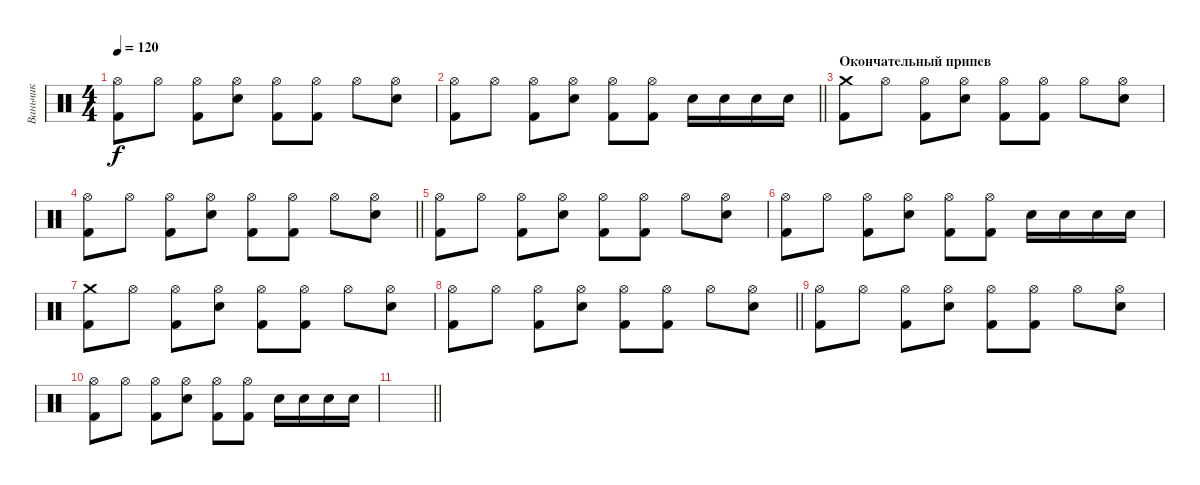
\track ("Ваньчик" "Ваньчик") {instrument percussion}
\staff {score}
\articulation defaults
\ts (4 4)
\tempo 120
\clef neutral
\ks c
("Hi-Hat (open)" "Kick (hit) 2").8{dy f} "Hi-Hat (open)".8 ("Hi-Hat (open)" "Kick (hit) 2").8 ("Hi-Hat (open)" "Snare (hit) 2").8 ("Hi-Hat (open)" "Kick (hit) 2").8 ("Hi-Hat (open)" "Kick (hit) 2").8 "Hi-Hat (open)".8 ("Hi-Hat (open)" "Snare (hit) 2").8 |
\barLineRight lightlight
("Hi-Hat (open)" "Kick (hit) 2").8 "Hi-Hat (open)".8 ("Hi-Hat (open)" "Kick (hit) 2").8 ("Hi-Hat (open)" "Snare (hit) 2").8 ("Hi-Hat (open)" "Kick (hit) 2").8 ("Hi-Hat (open)" "Kick (hit) 2").8 "Snare (hit) 2".16 "Snare (hit) 2".16 "Snare (hit) 2".16 "Snare (hit) 2".16 |
\section ("" "Окончательный припев")
("Crash medium (hit)" "Kick (hit) 2").8 "Hi-Hat (open)".8 ("Hi-Hat (open)" "Kick (hit) 2").8 ("Hi-Hat (open)" "Snare (hit) 2").8 ("Hi-Hat (open)" "Kick (hit) 2").8 ("Hi-Hat (open)" "Kick (hit) 2").8 "Hi-Hat (open)".8 ("Hi-Hat (open)" "Snare (hit) 2").8 |
\barLineRight lightlight
("Hi-Hat (open)" "Kick (hit) 2").8 "Hi-Hat (open)".8 ("Hi-Hat (open)" "Kick (hit) 2").8 ("Hi-Hat (open)" "Snare (hit) 2").8 ("Hi-Hat (open)" "Kick (hit) 2").8 ("Hi-Hat (open)" "Kick (hit) 2").8 "Hi-Hat (open)".8 ("Hi-Hat (open)" "Snare (hit) 2").8 |
("Hi-Hat (open)" "Kick (hit) 2").8 "Hi-Hat (open)".8 ("Hi-Hat (open)" "Kick (hit) 2").8 ("Hi-Hat (open)" "Snare (hit) 2").8 ("Hi-Hat (open)" "Kick (hit) 2").8 ("Hi-Hat (open)" "Kick (hit) 2").8 "Hi-Hat (open)".8 ("Hi-Hat (open)" "Snare (hit) 2").8 |
("Hi-Hat (open)" "Kick (hit) 2").8 "Hi-Hat (open)".8 ("Hi-Hat (open)" "Kick (hit) 2").8 ("Hi-Hat (open)" "Snare (hit) 2").8 ("Hi-Hat (open)" "Kick (hit) 2").8 ("Hi-Hat (open)" "Kick (hit) 2").8 "Snare (hit) 2".16 "Snare (hit) 2".16 "Snare (hit) 2".16 "Snare (hit) 2".16 |
("Crash medium (hit)" "Kick (hit) 2").8 "Hi-Hat (open)".8 ("Hi-Hat (open)" "Kick (hit) 2").8 ("Hi-Hat (open)" "Snare (hit) 2").8 ("Hi-Hat (open)" "Kick (hit) 2").8 ("Hi-Hat (open)" "Kick (hit) 2").8 "Hi-Hat (open)".8 ("Hi-Hat (open)" "Snare (hit) 2").8 |
\barLineRight lightlight
("Hi-Hat (open)" "Kick (hit) 2").8 "Hi-Hat (open)".8 ("Hi-Hat (open)" "Kick (hit) 2").8 ("Hi-Hat (open)" "Snare (hit) 2").8 ("Hi-Hat (open)" "Kick (hit) 2").8 ("Hi-Hat (open)" "Kick (hit) 2").8 "Hi-Hat (open)".8 ("Hi-Hat (open)" "Snare (hit) 2").8 |
("Hi-Hat (open)" "Kick (hit) 2").8 "Hi-Hat (open)".8 ("Hi-Hat (open)" "Kick (hit) 2").8 ("Hi-Hat (open)" "Snare (hit) 2").8 ("Hi-Hat (open)" "Kick (hit) 2").8 ("Hi-Hat (open)" "Kick (hit) 2").8 "Hi-Hat (open)".8 ("Hi-Hat (open)" "Snare (hit) 2").8 |
("Hi-Hat (open)" "Kick (hit) 2").8 "Hi-Hat (open)".8 ("Hi-Hat (open)" "Kick (hit) 2").8 ("Hi-Hat (open)" "Snare (hit) 2").8 ("Hi-Hat (open)" "Kick (hit) 2").8 ("Hi-Hat (open)" "Kick (hit) 2").8 "Snare (hit) 2".16 "Snare (hit) 2".16 "Snare (hit) 2".16 "Snare (hit) 2".16 |
\barLineRight lightlight
